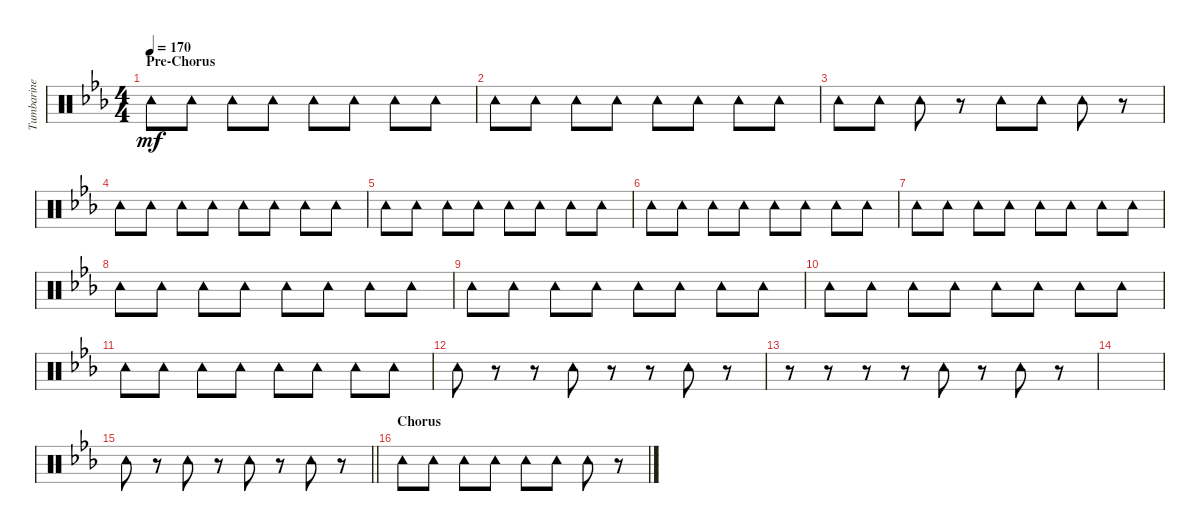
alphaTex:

\track ("Tumbarine" "Tumbarine") {solo instrument percussion}
\staff {score}
\articulation defaults
\ts (4 4)
\section ("" "Pre-Chorus")
\tempo 170
\clef neutral
\ks eb "Tambourine (hit)".8{dy mf} "Tambourine (hit)".8 "Tambourine (hit)".8 "Tambourine (hit)".8 "Tambourine (hit)".8 "Tambourine (hit)".8 "Tambourine (hit)".8 "Tambourine (hit)".8
|
"Tambourine (hit)".8 "Tambourine (hit)".8 "Tambourine (hit)".8 "Tambourine (hit)".8 "Tambourine (hit)".8 "Tambourine (hit)".8 "Tambourine (hit)".8 "Tambourine (hit)".8 |
"Tambourine (hit)".8 "Tambourine (hit)".8 "Tambourine (hit)".8 r.8 "Tambourine (hit)".8 "Tambourine (hit)".8 "Tambourine (hit)".8 r.8 |
"Tambourine (hit)".8 "Tambourine (hit)".8 "Tambourine (hit)".8 "Tambourine (hit)".8 "Tambourine (hit)".8 "Tambourine (hit)".8 "Tambourine (hit)".8 "Tambourine (hit)".8 |
"Tambourine (hit)".8 "Tambourine (hit)".8 "Tambourine (hit)".8 "Tambourine (hit)".8 "Tambourine (hit)".8 "Tambourine (hit)".8 "Tambourine (hit)".8 "Tambourine (hit)".8 |
"Tambourine (hit)".8 "Tambourine (hit)".8 "Tambourine (hit)".8 "Tambourine (hit)".8 "Tambourine (hit)".8 "Tambourine (hit)".8 "Tambourine (hit)".8 "Tambourine (hit)".8 |
"Tambourine (hit)".8 "Tambourine (hit)".8 "Tambourine (hit)".8 "Tambourine (hit)".8 "Tambourine (hit)".8 "Tambourine (hit)".8 "Tambourine (hit)".8 "Tambourine (hit)".8 |
"Tambourine (hit)".8 "Tambourine (hit)".8 "Tambourine (hit)".8 "Tambourine (hit)".8 "Tambourine (hit)".8 "Tambourine (hit)".8 "Tambourine (hit)".8 "Tambourine (hit)".8 |
"Tambourine (hit)".8 "Tambourine (hit)".8 "Tambourine (hit)".8 "Tambourine (hit)".8 "Tambourine (hit)".8 "Tambourine (hit)".8 "Tambourine (hit)".8 "Tambourine (hit)".8 |
"Tambourine (hit)".8 "Tambourine (hit)".8 "Tambourine (hit)".8 "Tambourine (hit)".8 "Tambourine (hit)".8 "Tambourine (hit)".8 "Tambourine (hit)".8 "Tambourine (hit)".8 |
"Tambourine (hit)".8 "Tambourine (hit)".8 "Tambourine (hit)".8 "Tambourine (hit)".8 "Tambourine (hit)".8 "Tambourine (hit)".8 "Tambourine (hit)".8 "Tambourine (hit)".8 |
"Tambourine (hit)".8 r.8 r.8 "Tambourine (hit)".8 r.8 r.8 "Tambourine (hit)".8 r.8 |
r.8 r.8 r.8 r.8 "Tambourine (hit)".8 r.8 "Tambourine (hit)".8 r.8 |
|
\barLineRight lightlight "Tambourine (hit)".8
r.8 "Tambourine (hit)".8 r.8 "Tambourine (hit)".8 r.8 "Tambourine (hit)".8 r.8 |
\section ("" "Chorus")
"Tambourine (hit)".8 "Tambourine (hit)".8 "Tambourine (hit)".8 "Tambourine (hit)".8 "Tambourine (hit)".8 "Tambourine (hit)".8 "Tambourine (hit)".8 r.8
